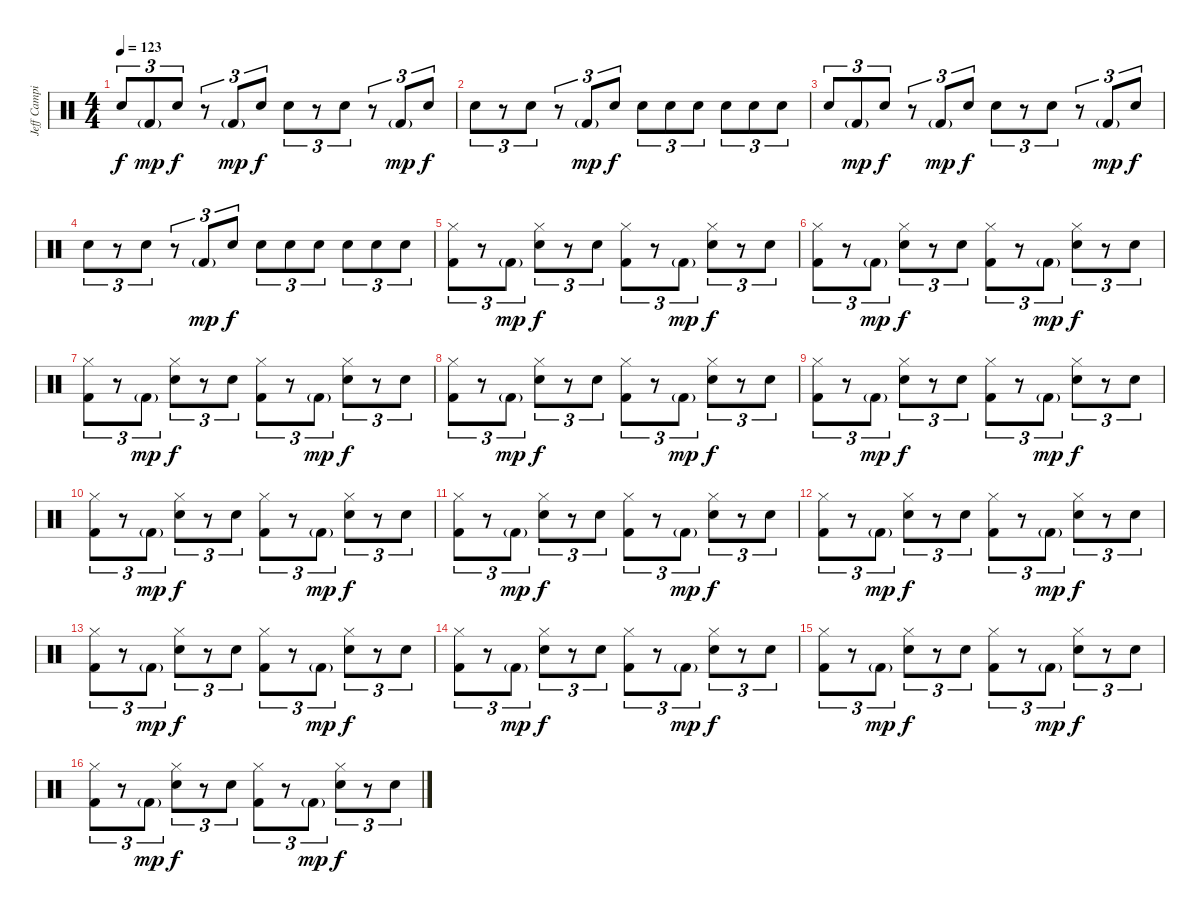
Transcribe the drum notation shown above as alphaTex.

\track ("Jeff Campitelli (Drums)" "Jeff Campi") {instrument percussion}
\staff {score}
\articulation defaults
\ts (4 4)
\tempo 123
\clef neutral
\ks c "Electric Snare (hit)".8{tu (3 2) dy f} "Kick (hit) 2"{g}.8{tu (3 2) dy mp} "Electric Snare (hit)".8{tu (3 2) dy f}
r.8{tu (3 2)} "Kick (hit) 2"{g}.8{tu (3 2) dy mp} "Electric Snare (hit)".8{tu (3 2) dy f} "Electric Snare (hit)".8{tu (3 2)} r.8{tu (3 2)} "Electric Snare (hit)".8{tu (3 2)} r.8{tu (3 2)} "Kick (hit) 2"{g}.8{tu (3 2) dy mp} "Electric Snare (hit)".8{tu (3 2) dy f} |
"Electric Snare (hit)".8{tu (3 2)} r.8{tu (3 2)} "Electric Snare (hit)".8{tu (3 2)} r.8{tu (3 2)} "Kick (hit) 2"{g}.8{tu (3 2) dy mp} "Electric Snare (hit)".8{tu (3 2) dy f} "Electric Snare (hit)".8{tu (3 2)} "Electric Snare (hit)".8{tu (3 2)} "Electric Snare (hit)".8{tu (3 2)} "Electric Snare (hit)".8{tu (3 2)} "Electric Snare (hit)".8{tu (3 2)} "Electric Snare (hit)".8{tu (3 2)} |
"Electric Snare (hit)".8{tu (3 2)} "Kick (hit) 2"{g}.8{tu (3 2) dy mp} "Electric Snare (hit)".8{tu (3 2) dy f} r.8{tu (3 2)} "Kick (hit) 2"{g}.8{tu (3 2) dy mp} "Electric Snare (hit)".8{tu (3 2) dy f} "Electric Snare (hit)".8{tu (3 2)} r.8{tu (3 2)} "Electric Snare (hit)".8{tu (3 2)} r.8{tu (3 2)} "Kick (hit) 2"{g}.8{tu (3 2) dy mp} "Electric Snare (hit)".8{tu (3 2) dy f} |
"Electric Snare (hit)".8{tu (3 2)} r.8{tu (3 2)} "Electric Snare (hit)".8{tu (3 2)} r.8{tu (3 2)} "Kick (hit) 2"{g}.8{tu (3 2) dy mp} "Electric Snare (hit)".8{tu (3 2) dy f} "Electric Snare (hit)".8{tu (3 2)} "Electric Snare (hit)".8{tu (3 2)} "Electric Snare (hit)".8{tu (3 2)} "Electric Snare (hit)".8{tu (3 2)} "Electric Snare (hit)".8{tu (3 2)} "Electric Snare (hit)".8{tu (3 2)} |
("Hi-Hat (closed)" "Kick (hit) 2").8{tu (3 2)} r.8{tu (3 2)} "Kick (hit) 2"{g}.8{tu (3 2) dy mp} ("Hi-Hat (closed)" "Electric Snare (hit)").8{tu (3 2) dy f} r.8{tu (3 2)} "Electric Snare (hit)".8{tu (3 2)} ("Hi-Hat (closed)" "Kick (hit) 2").8{tu (3 2)} r.8{tu (3 2)} "Kick (hit) 2"{g}.8{tu (3 2) dy mp} ("Hi-Hat (closed)" "Electric Snare (hit)").8{tu (3 2) dy f} r.8{tu (3 2)} "Electric Snare (hit)".8{tu (3 2)} |
("Hi-Hat (closed)" "Kick (hit) 2").8{tu (3 2)} r.8{tu (3 2)} "Kick (hit) 2"{g}.8{tu (3 2) dy mp} ("Hi-Hat (closed)" "Electric Snare (hit)").8{tu (3 2) dy f} r.8{tu (3 2)} "Electric Snare (hit)".8{tu (3 2)} ("Hi-Hat (closed)" "Kick (hit) 2").8{tu (3 2)} r.8{tu (3 2)} "Kick (hit) 2"{g}.8{tu (3 2) dy mp} ("Hi-Hat (closed)" "Electric Snare (hit)").8{tu (3 2) dy f} r.8{tu (3 2)} "Electric Snare (hit)".8{tu (3 2)} |
("Hi-Hat (closed)" "Kick (hit) 2").8{tu (3 2)} r.8{tu (3 2)} "Kick (hit) 2"{g}.8{tu (3 2) dy mp} ("Hi-Hat (closed)" "Electric Snare (hit)").8{tu (3 2) dy f} r.8{tu (3 2)} "Electric Snare (hit)".8{tu (3 2)} ("Hi-Hat (closed)" "Kick (hit) 2").8{tu (3 2)} r.8{tu (3 2)} "Kick (hit) 2"{g}.8{tu (3 2) dy mp} ("Hi-Hat (closed)" "Electric Snare (hit)").8{tu (3 2) dy f} r.8{tu (3 2)} "Electric Snare (hit)".8{tu (3 2)} |
("Hi-Hat (closed)" "Kick (hit) 2").8{tu (3 2)} r.8{tu (3 2)} "Kick (hit) 2"{g}.8{tu (3 2) dy mp} ("Hi-Hat (closed)" "Electric Snare (hit)").8{tu (3 2) dy f} r.8{tu (3 2)} "Electric Snare (hit)".8{tu (3 2)} ("Hi-Hat (closed)" "Kick (hit) 2").8{tu (3 2)} r.8{tu (3 2)} "Kick (hit) 2"{g}.8{tu (3 2) dy mp} ("Hi-Hat (closed)" "Electric Snare (hit)").8{tu (3 2) dy f} r.8{tu (3 2)} "Electric Snare (hit)".8{tu (3 2)} |
("Hi-Hat (closed)" "Kick (hit) 2").8{tu (3 2)} r.8{tu (3 2)} "Kick (hit) 2"{g}.8{tu (3 2) dy mp} ("Hi-Hat (closed)" "Electric Snare (hit)").8{tu (3 2) dy f} r.8{tu (3 2)} "Electric Snare (hit)".8{tu (3 2)} ("Hi-Hat (closed)" "Kick (hit) 2").8{tu (3 2)} r.8{tu (3 2)} "Kick (hit) 2"{g}.8{tu (3 2) dy mp} ("Hi-Hat (closed)" "Electric Snare (hit)").8{tu (3 2) dy f} r.8{tu (3 2)} "Electric Snare (hit)".8{tu (3 2)} |
("Hi-Hat (closed)" "Kick (hit) 2").8{tu (3 2)} r.8{tu (3 2)} "Kick (hit) 2"{g}.8{tu (3 2) dy mp} ("Hi-Hat (closed)" "Electric Snare (hit)").8{tu (3 2) dy f} r.8{tu (3 2)} "Electric Snare (hit)".8{tu (3 2)} ("Hi-Hat (closed)" "Kick (hit) 2").8{tu (3 2)} r.8{tu (3 2)} "Kick (hit) 2"{g}.8{tu (3 2) dy mp} ("Hi-Hat (closed)" "Electric Snare (hit)").8{tu (3 2) dy f} r.8{tu (3 2)} "Electric Snare (hit)".8{tu (3 2)} |
("Hi-Hat (closed)" "Kick (hit) 2").8{tu (3 2)} r.8{tu (3 2)} "Kick (hit) 2"{g}.8{tu (3 2) dy mp} ("Hi-Hat (closed)" "Electric Snare (hit)").8{tu (3 2) dy f} r.8{tu (3 2)} "Electric Snare (hit)".8{tu (3 2)} ("Hi-Hat (closed)" "Kick (hit) 2").8{tu (3 2)} r.8{tu (3 2)} "Kick (hit) 2"{g}.8{tu (3 2) dy mp} ("Hi-Hat (closed)" "Electric Snare (hit)").8{tu (3 2) dy f} r.8{tu (3 2)} "Electric Snare (hit)".8{tu (3 2)} |
("Hi-Hat (closed)" "Kick (hit) 2").8{tu (3 2)} r.8{tu (3 2)} "Kick (hit) 2"{g}.8{tu (3 2) dy mp} ("Hi-Hat (closed)" "Electric Snare (hit)").8{tu (3 2) dy f} r.8{tu (3 2)} "Electric Snare (hit)".8{tu (3 2)} ("Hi-Hat (closed)" "Kick (hit) 2").8{tu (3 2)} r.8{tu (3 2)} "Kick (hit) 2"{g}.8{tu (3 2) dy mp} ("Hi-Hat (closed)" "Electric Snare (hit)").8{tu (3 2) dy f} r.8{tu (3 2)} "Electric Snare (hit)".8{tu (3 2)} |
("Hi-Hat (closed)" "Kick (hit) 2").8{tu (3 2)} r.8{tu (3 2)} "Kick (hit) 2"{g}.8{tu (3 2) dy mp} ("Hi-Hat (closed)" "Electric Snare (hit)").8{tu (3 2) dy f} r.8{tu (3 2)} "Electric Snare (hit)".8{tu (3 2)} ("Hi-Hat (closed)" "Kick (hit) 2").8{tu (3 2)} r.8{tu (3 2)} "Kick (hit) 2"{g}.8{tu (3 2) dy mp} ("Hi-Hat (closed)" "Electric Snare (hit)").8{tu (3 2) dy f} r.8{tu (3 2)} "Electric Snare (hit)".8{tu (3 2)} |
("Hi-Hat (closed)" "Kick (hit) 2").8{tu (3 2)} r.8{tu (3 2)} "Kick (hit) 2"{g}.8{tu (3 2) dy mp} ("Hi-Hat (closed)" "Electric Snare (hit)").8{tu (3 2) dy f} r.8{tu (3 2)} "Electric Snare (hit)".8{tu (3 2)} ("Hi-Hat (closed)" "Kick (hit) 2").8{tu (3 2)} r.8{tu (3 2)} "Kick (hit) 2"{g}.8{tu (3 2) dy mp} ("Hi-Hat (closed)" "Electric Snare (hit)").8{tu (3 2) dy f} r.8{tu (3 2)} "Electric Snare (hit)".8{tu (3 2)} |
("Hi-Hat (closed)" "Kick (hit) 2").8{tu (3 2)} r.8{tu (3 2)} "Kick (hit) 2"{g}.8{tu (3 2) dy mp} ("Hi-Hat (closed)" "Electric Snare (hit)").8{tu (3 2) dy f} r.8{tu (3 2)} "Electric Snare (hit)".8{tu (3 2)} ("Hi-Hat (closed)" "Kick (hit) 2").8{tu (3 2)} r.8{tu (3 2)} "Kick (hit) 2"{g}.8{tu (3 2) dy mp} ("Hi-Hat (closed)" "Electric Snare (hit)").8{tu (3 2) dy f} r.8{tu (3 2)} "Electric Snare (hit)".8{tu (3 2)} |
("Hi-Hat (closed)" "Kick (hit) 2").8{tu (3 2)} r.8{tu (3 2)} "Kick (hit) 2"{g}.8{tu (3 2) dy mp} ("Hi-Hat (closed)" "Electric Snare (hit)").8{tu (3 2) dy f} r.8{tu (3 2)} "Electric Snare (hit)".8{tu (3 2)} ("Hi-Hat (closed)" "Kick (hit) 2").8{tu (3 2)} r.8{tu (3 2)} "Kick (hit) 2"{g}.8{tu (3 2) dy mp} ("Hi-Hat (closed)" "Electric Snare (hit)").8{tu (3 2) dy f} r.8{tu (3 2)} "Electric Snare (hit)".8{tu (3 2)}
